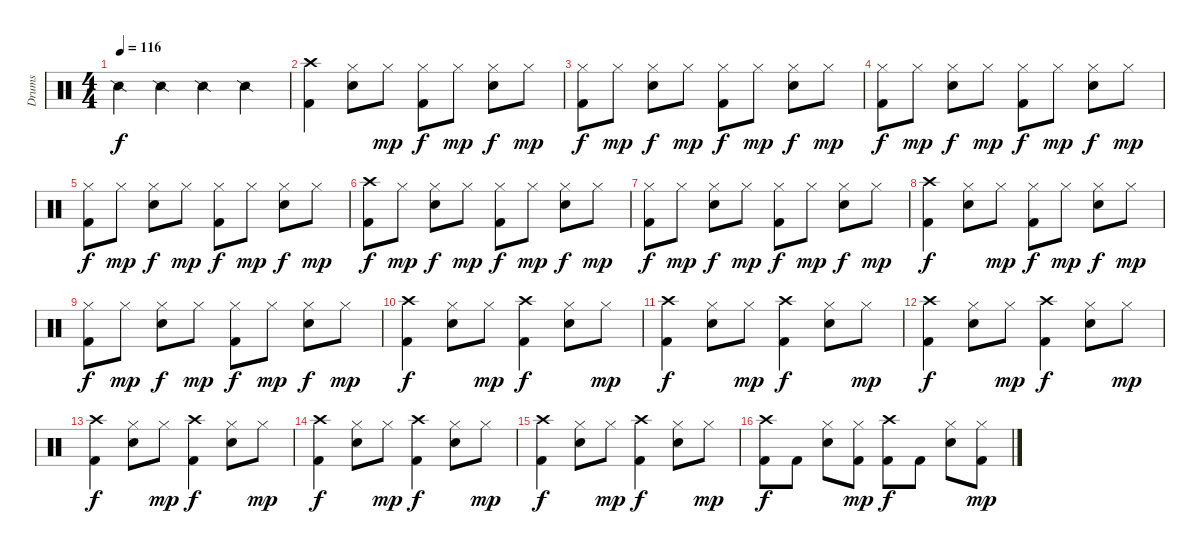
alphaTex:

\track ("Drums" "Drums") {instrument percussion}
\staff {score}
\articulation defaults
\ts (4 4)
\tempo 116
\clef neutral
\ks c "Snare (side stick) 2".4{dy f} "Snare (side stick) 2".4 "Snare (side stick) 2".4 "Snare (side stick) 2".4
|
("Crash high (hit)" "Kick (hit) 2").4 ("Hi-Hat (closed)" "Electric Snare (hit)").8 "Hi-Hat (closed)".8{dy mp} ("Hi-Hat (closed)" "Kick (hit) 2").8{dy f} "Hi-Hat (closed)".8{dy mp} ("Hi-Hat (closed)" "Electric Snare (hit)").8{dy f} "Hi-Hat (closed)".8{dy mp} |
("Hi-Hat (closed)" "Kick (hit) 2").8{dy f} "Hi-Hat (closed)".8{dy mp} ("Hi-Hat (closed)" "Electric Snare (hit)").8{dy f} "Hi-Hat (closed)".8{dy mp} ("Hi-Hat (closed)" "Kick (hit) 2").8{dy f} "Hi-Hat (closed)".8{dy mp} ("Hi-Hat (closed)" "Electric Snare (hit)").8{dy f} "Hi-Hat (closed)".8{dy mp} |
("Hi-Hat (closed)" "Kick (hit) 2").8{dy f} "Hi-Hat (closed)".8{dy mp} ("Hi-Hat (closed)" "Electric Snare (hit)").8{dy f} "Hi-Hat (closed)".8{dy mp} ("Hi-Hat (closed)" "Kick (hit) 2").8{dy f} "Hi-Hat (closed)".8{dy mp} ("Hi-Hat (closed)" "Electric Snare (hit)").8{dy f} "Hi-Hat (closed)".8{dy mp} |
("Hi-Hat (closed)" "Kick (hit) 2").8{dy f} "Hi-Hat (closed)".8{dy mp} ("Hi-Hat (closed)" "Electric Snare (hit)").8{dy f} "Hi-Hat (closed)".8{dy mp} ("Hi-Hat (closed)" "Kick (hit) 2").8{dy f} "Hi-Hat (closed)".8{dy mp} ("Hi-Hat (closed)" "Electric Snare (hit)").8{dy f} "Hi-Hat (closed)".8{dy mp} |
("Crash high (hit)" "Kick (hit) 2").8{dy f} "Hi-Hat (closed)".8{dy mp} ("Hi-Hat (closed)" "Electric Snare (hit)").8{dy f} "Hi-Hat (closed)".8{dy mp} ("Hi-Hat (closed)" "Kick (hit) 2").8{dy f} "Hi-Hat (closed)".8{dy mp} ("Hi-Hat (closed)" "Electric Snare (hit)").8{dy f} "Hi-Hat (closed)".8{dy mp} |
("Hi-Hat (closed)" "Kick (hit) 2").8{dy f} "Hi-Hat (closed)".8{dy mp} ("Hi-Hat (closed)" "Electric Snare (hit)").8{dy f} "Hi-Hat (closed)".8{dy mp} ("Hi-Hat (closed)" "Kick (hit) 2").8{dy f} "Hi-Hat (closed)".8{dy mp} ("Hi-Hat (closed)" "Electric Snare (hit)").8{dy f} "Hi-Hat (closed)".8{dy mp} |
("Crash high (hit)" "Kick (hit) 2").4{dy f} ("Hi-Hat (closed)" "Electric Snare (hit)").8 "Hi-Hat (closed)".8{dy mp} ("Hi-Hat (closed)" "Kick (hit) 2").8{dy f} "Hi-Hat (closed)".8{dy mp} ("Hi-Hat (closed)" "Electric Snare (hit)").8{dy f} "Hi-Hat (closed)".8{dy mp} |
("Hi-Hat (closed)" "Kick (hit) 2").8{dy f} "Hi-Hat (closed)".8{dy mp} ("Hi-Hat (closed)" "Electric Snare (hit)").8{dy f} "Hi-Hat (closed)".8{dy mp} ("Hi-Hat (closed)" "Kick (hit) 2").8{dy f} "Hi-Hat (closed)".8{dy mp} ("Hi-Hat (closed)" "Electric Snare (hit)").8{dy f} "Hi-Hat (closed)".8{dy mp} |
("Crash high (hit)" "Kick (hit) 2").4{dy f} ("Hi-Hat (closed)" "Electric Snare (hit)").8 "Hi-Hat (closed)".8{dy mp} ("Crash high (hit)" "Kick (hit) 2").4{dy f} ("Hi-Hat (closed)" "Electric Snare (hit)").8 "Hi-Hat (closed)".8{dy mp} |
("Crash high (hit)" "Kick (hit) 2").4{dy f} ("Hi-Hat (closed)" "Electric Snare (hit)").8 "Hi-Hat (closed)".8{dy mp} ("Crash high (hit)" "Kick (hit) 2").4{dy f} ("Hi-Hat (closed)" "Electric Snare (hit)").8 "Hi-Hat (closed)".8{dy mp} |
("Crash high (hit)" "Kick (hit) 2").4{dy f} ("Hi-Hat (closed)" "Electric Snare (hit)").8 "Hi-Hat (closed)".8{dy mp} ("Crash high (hit)" "Kick (hit) 2").4{dy f} ("Hi-Hat (closed)" "Electric Snare (hit)").8 "Hi-Hat (closed)".8{dy mp} |
("Crash high (hit)" "Kick (hit) 2").4{dy f} ("Hi-Hat (closed)" "Electric Snare (hit)").8 "Hi-Hat (closed)".8{dy mp} ("Crash high (hit)" "Kick (hit) 2").4{dy f} ("Hi-Hat (closed)" "Electric Snare (hit)").8 "Hi-Hat (closed)".8{dy mp} |
("Crash high (hit)" "Kick (hit) 2").4{dy f} ("Hi-Hat (closed)" "Electric Snare (hit)").8 "Hi-Hat (closed)".8{dy mp} ("Crash high (hit)" "Kick (hit) 2").4{dy f} ("Hi-Hat (closed)" "Electric Snare (hit)").8 "Hi-Hat (closed)".8{dy mp} |
("Crash high (hit)" "Kick (hit) 2").4{dy f} ("Hi-Hat (closed)" "Electric Snare (hit)").8 "Hi-Hat (closed)".8{dy mp} ("Crash high (hit)" "Kick (hit) 2").4{dy f} ("Hi-Hat (closed)" "Electric Snare (hit)").8 "Hi-Hat (closed)".8{dy mp} |
("Crash high (hit)" "Kick (hit) 2").8{dy f} "Kick (hit) 2".8 ("Hi-Hat (closed)" "Electric Snare (hit)").8 ("Hi-Hat (closed)" "Kick (hit) 2").8{dy mp} ("Crash high (hit)" "Kick (hit) 2").8{dy f} "Kick (hit) 2".8 ("Hi-Hat (closed)" "Electric Snare (hit)").8 ("Hi-Hat (closed)" "Kick (hit) 2").8{dy mp}
